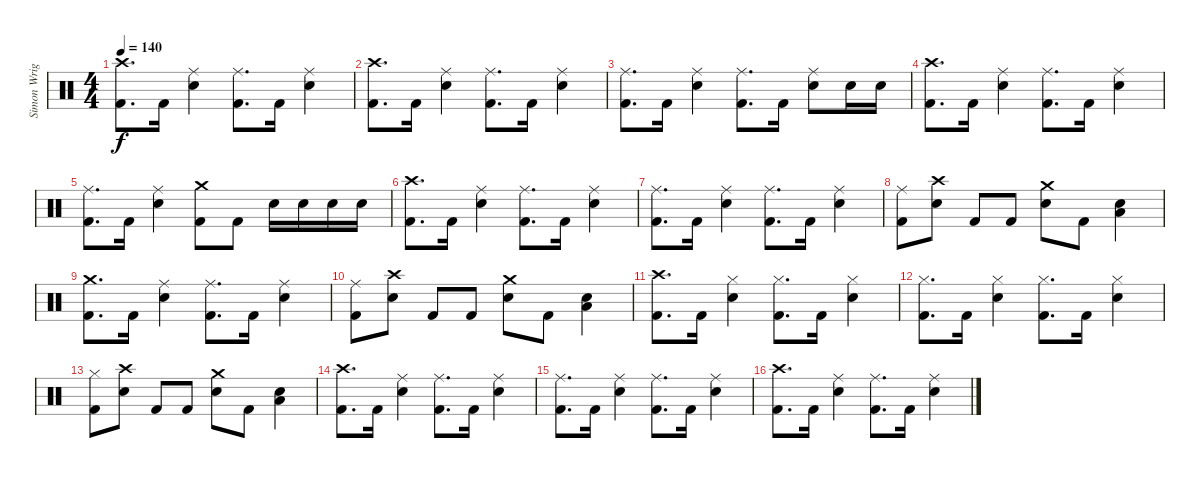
\track ("Simon Wright" "Simon Wrig") {instrument percussion}
\staff {score}
\articulation defaults
\ts (4 4)
\tempo 140
\clef neutral
\ks c
("Crash high (hit)" "Kick (hit) 2").8{d dy f} "Kick (hit) 2".16 ("Ride (middle)" "Snare (hit) 2").4 ("Ride (middle)" "Kick (hit) 2").8{d} "Kick (hit) 2".16 ("Ride (middle)" "Snare (hit) 2").4 |
("Crash high (hit)" "Kick (hit) 2").8{d} "Kick (hit) 2".16 ("Ride (middle)" "Snare (hit) 2").4 ("Ride (middle)" "Kick (hit) 2").8{d} "Kick (hit) 2".16 ("Ride (middle)" "Snare (hit) 2").4 |
("Ride (middle)" "Kick (hit) 2").8{d} "Kick (hit) 2".16 ("Ride (middle)" "Snare (hit) 2").4 ("Ride (middle)" "Kick (hit) 2").8{d} "Kick (hit) 2".16 ("Ride (middle)" "Snare (hit) 2").8 "Snare (hit) 2".16 "Snare (hit) 2".16 |
("Crash high (hit)" "Kick (hit) 2").8{d} "Kick (hit) 2".16 ("Ride (middle)" "Snare (hit) 2").4 ("Ride (middle)" "Kick (hit) 2").8{d} "Kick (hit) 2".16 ("Ride (middle)" "Snare (hit) 2").4 |
("Ride (middle)" "Kick (hit) 2").8{d} "Kick (hit) 2".16 ("Ride (middle)" "Snare (hit) 2").4 ("Crash medium (hit)" "Kick (hit) 2").8 "Kick (hit) 2".8 "Snare (hit) 2".16 "Snare (hit) 2".16 "Snare (hit) 2".16 "Snare (hit) 2".16 |
("Crash high (hit)" "Kick (hit) 2").8{d} "Kick (hit) 2".16 ("Ride (middle)" "Snare (hit) 2").4 ("Ride (middle)" "Kick (hit) 2").8{d} "Kick (hit) 2".16 ("Ride (middle)" "Snare (hit) 2").4 |
("Ride (middle)" "Kick (hit) 2").8{d} "Kick (hit) 2".16 ("Ride (middle)" "Snare (hit) 2").4 ("Ride (middle)" "Kick (hit) 2").8{d} "Kick (hit) 2".16 ("Ride (middle)" "Snare (hit) 2").4 |
("Ride (middle)" "Kick (hit) 2").8 ("Crash high (hit)" "Snare (hit) 2").8 "Kick (hit) 2".8 "Kick (hit) 2".8 ("Crash medium (hit)" "Snare (hit) 2").8 "Kick (hit) 2".8 ("Low Tom (hit)" "Snare (hit) 2").4 |
("Crash medium (hit)" "Kick (hit) 2").8{d} "Kick (hit) 2".16 ("Ride (middle)" "Snare (hit) 2").4 ("Ride (middle)" "Kick (hit) 2").8{d} "Kick (hit) 2".16 ("Ride (middle)" "Snare (hit) 2").4 |
("Ride (middle)" "Kick (hit) 2").8 ("Crash high (hit)" "Snare (hit) 2").8 "Kick (hit) 2".8 "Kick (hit) 2".8 ("Crash medium (hit)" "Snare (hit) 2").8 "Kick (hit) 2".8 ("Low Tom (hit)" "Snare (hit) 2").4 |
("Crash high (hit)" "Kick (hit) 2").8{d} "Kick (hit) 2".16 ("Hi-Hat (closed)" "Snare (hit) 2").4 ("Hi-Hat (closed)" "Kick (hit) 2").8{d} "Kick (hit) 2".16 ("Hi-Hat (closed)" "Snare (hit) 2").4 |
("Hi-Hat (closed)" "Kick (hit) 2").8{d} "Kick (hit) 2".16 ("Hi-Hat (closed)" "Snare (hit) 2").4 ("Hi-Hat (closed)" "Kick (hit) 2").8{d} "Kick (hit) 2".16 ("Hi-Hat (closed)" "Snare (hit) 2").4 |
("Hi-Hat (closed)" "Kick (hit) 2").8 ("Crash high (hit)" "Snare (hit) 2").8 "Kick (hit) 2".8 "Kick (hit) 2".8 ("Crash medium (hit)" "Snare (hit) 2").8 "Kick (hit) 2".8 ("Low Tom (hit)" "Snare (hit) 2").4 |
("Crash high (hit)" "Kick (hit) 2").8{d} "Kick (hit) 2".16 ("Ride (middle)" "Snare (hit) 2").4 ("Ride (middle)" "Kick (hit) 2").8{d} "Kick (hit) 2".16 ("Ride (middle)" "Snare (hit) 2").4 |
("Ride (middle)" "Kick (hit) 2").8{d} "Kick (hit) 2".16 ("Ride (middle)" "Snare (hit) 2").4 ("Ride (middle)" "Kick (hit) 2").8{d} "Kick (hit) 2".16 ("Ride (middle)" "Snare (hit) 2").4 |
("Crash high (hit)" "Kick (hit) 2").8{d} "Kick (hit) 2".16 ("Ride (middle)" "Snare (hit) 2").4 ("Ride (middle)" "Kick (hit) 2").8{d} "Kick (hit) 2".16 ("Ride (middle)" "Snare (hit) 2").4
